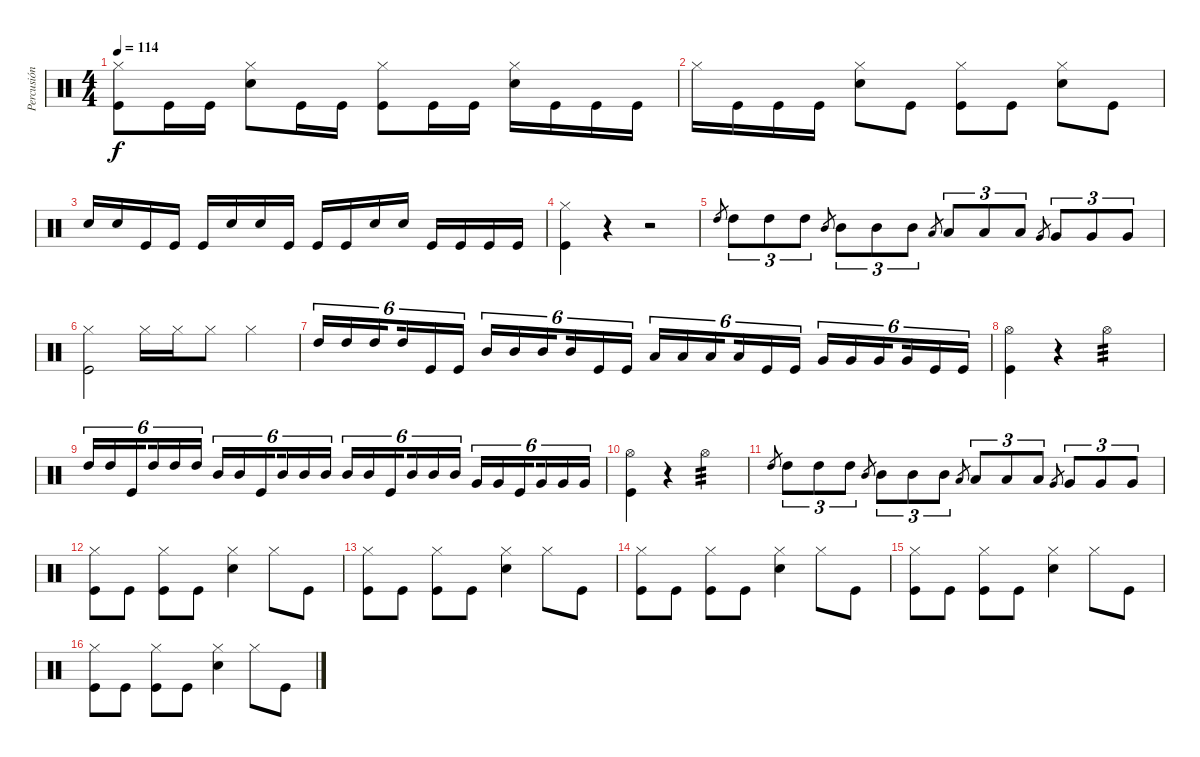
\track ("Percusión" "Percusión") {instrument percussion}
\staff {score}
\articulation defaults
\ts (4 4)
\tempo 114
\clef neutral
\ks c
("Hi-Hat (closed)" "Kick (hit)").8{dy f} "Kick (hit)".16 "Kick (hit)".16 ("Hi-Hat (closed)" "Snare (hit) 2").8 "Kick (hit)".16 "Kick (hit)".16 ("Hi-Hat (closed)" "Kick (hit)").8 "Kick (hit)".16 "Kick (hit)".16 ("Hi-Hat (closed)" "Snare (hit) 2").16 "Kick (hit)".16 "Kick (hit)".16 "Kick (hit)".16 |
"Hi-Hat (closed)".16 "Kick (hit)".16 "Kick (hit)".16 "Kick (hit)".16 ("Hi-Hat (closed)" "Snare (hit) 2").8 "Kick (hit)".8 ("Hi-Hat (closed)" "Kick (hit)").8 "Kick (hit)".8 ("Hi-Hat (closed)" "Snare (hit) 2").8 "Kick (hit)".8 |
"Snare (hit) 2".16 "Snare (hit) 2".16 "Kick (hit)".16 "Kick (hit)".16 "Kick (hit)".16 "Snare (hit) 2".16 "Snare (hit) 2".16 "Kick (hit)".16 "Kick (hit)".16 "Kick (hit)".16 "Snare (hit) 2".16 "Snare (hit) 2".16 "Kick (hit)".16 "Kick (hit)".16 "Kick (hit)".16 "Kick (hit)".16 |
("Hi-Hat (closed)" "Kick (hit)").4 r.4 r.2 |
"High Tom (hit)".8{gr} "High Tom (hit)".8{tu (3 2)} "High Tom (hit)".8{tu (3 2)} "High Tom (hit)".8{tu (3 2)} "Mid Tom (hit)".8{gr} "Mid Tom (hit)".8{tu (3 2)} "Mid Tom (hit)".8{tu (3 2)} "Mid Tom (hit)".8{tu (3 2)} "Low Tom (hit)".8{gr} "Low Tom (hit)".8{tu (3 2)} "Low Tom (hit)".8{tu (3 2)} "Low Tom (hit)".8{tu (3 2)} "Very Low Tom (hit)".8{gr} "Very Low Tom (hit)".8{tu (3 2)} "Very Low Tom (hit)".8{tu (3 2)} "Very Low Tom (hit)".8{tu (3 2)} |
("Hi-Hat (closed)" "Kick (hit)").2 "Hi-Hat (closed)".16 "Hi-Hat (closed)".16 "Hi-Hat (closed)".8 "Hi-Hat (closed)".4 |
"High Tom (hit)".16{tu (6 4)} "High Tom (hit)".16{tu (6 4)} "High Tom (hit)".16{tu (6 4) beam splitsecondary} "High Tom (hit)".16{tu (6 4)} "Kick (hit)".16{tu (6 4)} "Kick (hit)".16{tu (6 4)} "Mid Tom (hit)".16{tu (6 4)} "Mid Tom (hit)".16{tu (6 4)} "Mid Tom (hit)".16{tu (6 4) beam splitsecondary} "Mid Tom (hit)".16{tu (6 4)} "Kick (hit)".16{tu (6 4)} "Kick (hit)".16{tu (6 4)} "Low Tom (hit)".16{tu (6 4)} "Low Tom (hit)".16{tu (6 4)} "Low Tom (hit)".16{tu (6 4) beam splitsecondary} "Low Tom (hit)".16{tu (6 4)} "Kick (hit)".16{tu (6 4)} "Kick (hit)".16{tu (6 4)} "Very Low Tom (hit)".16{tu (6 4)} "Very Low Tom (hit)".16{tu (6 4)} "Very Low Tom (hit)".16{tu (6 4) beam splitsecondary} "Very Low Tom (hit)".16{tu (6 4)} "Kick (hit)".16{tu (6 4)} "Kick (hit)".16{tu (6 4)} |
("Hi-Hat (open)" "Kick (hit)").4 r.4 "Hi-Hat (open)".2{tp 3} |
"High Tom (hit)".16{tu (6 4)} "High Tom (hit)".16{tu (6 4)} "Kick (hit)".16{tu (6 4) beam splitsecondary} "High Tom (hit)".16{tu (6 4)} "High Tom (hit)".16{tu (6 4)} "High Tom (hit)".16{tu (6 4)} "Mid Tom (hit)".16{tu (6 4)} "Mid Tom (hit)".16{tu (6 4)} "Kick (hit)".16{tu (6 4) beam splitsecondary} "Mid Tom (hit)".16{tu (6 4)} "Mid Tom (hit)".16{tu (6 4)} "Mid Tom (hit)".16{tu (6 4)} "Mid Tom (hit)".16{tu (6 4)} "Mid Tom (hit)".16{tu (6 4)} "Kick (hit)".16{tu (6 4) beam splitsecondary} "Mid Tom (hit)".16{tu (6 4)} "Mid Tom (hit)".16{tu (6 4)} "Mid Tom (hit)".16{tu (6 4)} "Very Low Tom (hit)".16{tu (6 4)} "Very Low Tom (hit)".16{tu (6 4)} "Kick (hit)".16{tu (6 4) beam splitsecondary} "Very Low Tom (hit)".16{tu (6 4)} "Very Low Tom (hit)".16{tu (6 4)} "Very Low Tom (hit)".16{tu (6 4)} |
("Hi-Hat (open)" "Kick (hit)").4 r.4 "Hi-Hat (open)".2{tp 3} |
"High Tom (hit)".8{gr} "High Tom (hit)".8{tu (3 2)} "High Tom (hit)".8{tu (3 2)} "High Tom (hit)".8{tu (3 2)} "Mid Tom (hit)".8{gr} "Mid Tom (hit)".8{tu (3 2)} "Mid Tom (hit)".8{tu (3 2)} "Mid Tom (hit)".8{tu (3 2)} "Low Tom (hit)".8{gr} "Low Tom (hit)".8{tu (3 2)} "Low Tom (hit)".8{tu (3 2)} "Low Tom (hit)".8{tu (3 2)} "Very Low Tom (hit)".8{gr} "Very Low Tom (hit)".8{tu (3 2)} "Very Low Tom (hit)".8{tu (3 2)} "Very Low Tom (hit)".8{tu (3 2)} |
("Hi-Hat (closed)" "Kick (hit)").8 "Kick (hit)".8 ("Hi-Hat (closed)" "Kick (hit)").8 "Kick (hit)".8 ("Hi-Hat (closed)" "Snare (hit) 2").4 "Hi-Hat (closed)".8 "Kick (hit)".8 |
("Hi-Hat (closed)" "Kick (hit)").8 "Kick (hit)".8 ("Hi-Hat (closed)" "Kick (hit)").8 "Kick (hit)".8 ("Hi-Hat (closed)" "Snare (hit) 2").4 "Hi-Hat (closed)".8 "Kick (hit)".8 |
("Hi-Hat (closed)" "Kick (hit)").8 "Kick (hit)".8 ("Hi-Hat (closed)" "Kick (hit)").8 "Kick (hit)".8 ("Hi-Hat (closed)" "Snare (hit) 2").4 "Hi-Hat (closed)".8 "Kick (hit)".8 |
("Hi-Hat (closed)" "Kick (hit)").8 "Kick (hit)".8 ("Hi-Hat (closed)" "Kick (hit)").8 "Kick (hit)".8 ("Hi-Hat (closed)" "Snare (hit) 2").4 "Hi-Hat (closed)".8 "Kick (hit)".8 |
("Hi-Hat (closed)" "Kick (hit)").8 "Kick (hit)".8 ("Hi-Hat (closed)" "Kick (hit)").8 "Kick (hit)".8 ("Hi-Hat (closed)" "Snare (hit) 2").4 "Hi-Hat (closed)".8 "Kick (hit)".8
